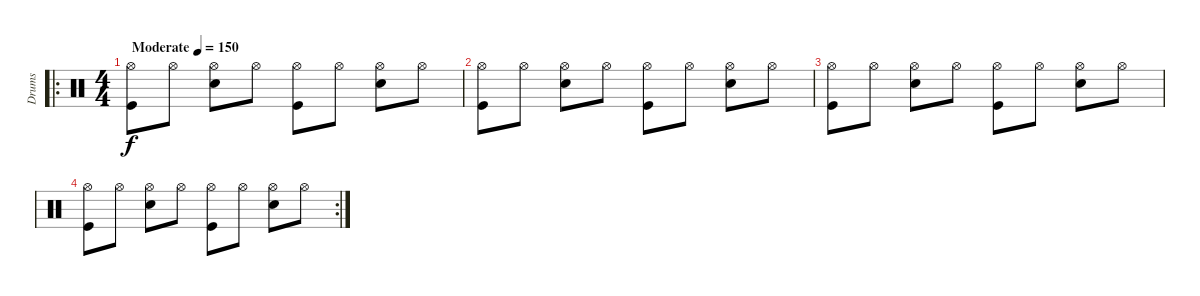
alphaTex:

\track ("Drums" "Drums") {instrument percussion}
\staff {score}
\articulation defaults
\ro
\ts (4 4)
\tempo (150 "Moderate")
\clef neutral
\ks c
("Hi-Hat (open)" "Kick (hit)").8{dy f} "Hi-Hat (open)".8 ("Hi-Hat (open)" "Snare (hit) 2").8 "Hi-Hat (open)".8 ("Hi-Hat (open)" "Kick (hit)").8 "Hi-Hat (open)".8 ("Hi-Hat (open)" "Snare (hit) 2").8 "Hi-Hat (open)".8 |
("Hi-Hat (open)" "Kick (hit)").8 "Hi-Hat (open)".8 ("Hi-Hat (open)" "Snare (hit) 2").8 "Hi-Hat (open)".8 ("Hi-Hat (open)" "Kick (hit)").8 "Hi-Hat (open)".8 ("Hi-Hat (open)" "Snare (hit) 2").8 "Hi-Hat (open)".8 |
("Hi-Hat (open)" "Kick (hit)").8 "Hi-Hat (open)".8 ("Hi-Hat (open)" "Snare (hit) 2").8 "Hi-Hat (open)".8 ("Hi-Hat (open)" "Kick (hit)").8 "Hi-Hat (open)".8 ("Hi-Hat (open)" "Snare (hit) 2").8 "Hi-Hat (open)".8 |
\rc 2
("Hi-Hat (open)" "Kick (hit)").8 "Hi-Hat (open)".8 ("Hi-Hat (open)" "Snare (hit) 2").8 "Hi-Hat (open)".8 ("Hi-Hat (open)" "Kick (hit)").8 "Hi-Hat (open)".8 ("Hi-Hat (open)" "Snare (hit) 2").8 "Hi-Hat (open)".8
